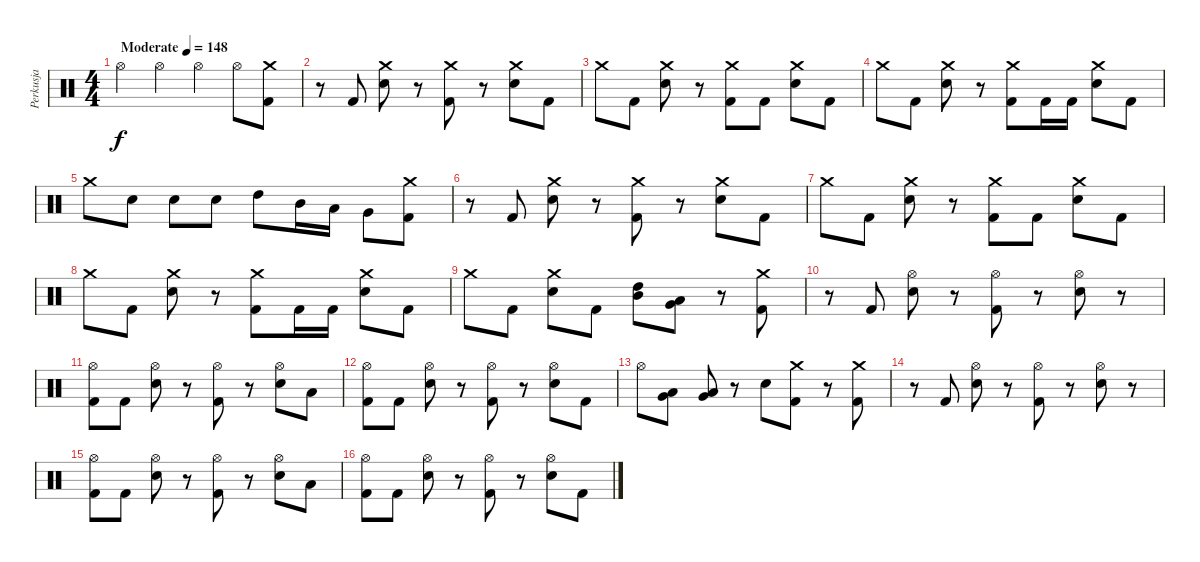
\track ("Perkusja" "Perkusja") {instrument percussion}
\staff {score}
\articulation defaults
\ts (4 4)
\tempo (148 "Moderate")
\clef neutral
\ks c "Hi-Hat (open)".4{dy f} "Hi-Hat (open)".4 "Hi-Hat (open)".4 "Hi-Hat (open)".8
("Crash medium (hit)" "Kick (hit) 2").8 |
r.8 "Kick (hit) 2".8 ("Crash medium (hit)" "Electric Snare (hit)").8 r.8 ("Crash medium (hit)" "Kick (hit) 2").8 r.8 ("Crash medium (hit)" "Electric Snare (hit)").8 "Kick (hit) 2".8 |
"Crash medium (hit)".8 "Kick (hit) 2".8 ("Crash medium (hit)" "Electric Snare (hit)").8 r.8 ("Crash medium (hit)" "Kick (hit) 2").8 "Kick (hit) 2".8 ("Crash medium (hit)" "Electric Snare (hit)").8 "Kick (hit) 2".8 |
"Crash medium (hit)".8 "Kick (hit) 2".8 ("Crash medium (hit)" "Electric Snare (hit)").8 r.8 ("Crash medium (hit)" "Kick (hit) 2").8 "Kick (hit) 2".16 "Kick (hit) 2".16 ("Crash medium (hit)" "Electric Snare (hit)").8 "Kick (hit) 2".8 |
"Crash medium (hit)".8 "Electric Snare (hit)".8 "Electric Snare (hit)".8 "Electric Snare (hit)".8 "High Tom (hit)".8 "Mid Tom (hit)".16 "Low Tom (hit)".16 "Very Low Tom (hit)".8 ("Crash medium (hit)" "Kick (hit) 2").8 |
r.8 "Kick (hit) 2".8 ("Crash medium (hit)" "Electric Snare (hit)").8 r.8 ("Crash medium (hit)" "Kick (hit) 2").8 r.8 ("Crash medium (hit)" "Electric Snare (hit)").8 "Kick (hit) 2".8 |
"Crash medium (hit)".8 "Kick (hit) 2".8 ("Crash medium (hit)" "Electric Snare (hit)").8 r.8 ("Crash medium (hit)" "Kick (hit) 2").8 "Kick (hit) 2".8 ("Crash medium (hit)" "Electric Snare (hit)").8 "Kick (hit) 2".8 |
"Crash medium (hit)".8 "Kick (hit) 2".8 ("Crash medium (hit)" "Electric Snare (hit)").8 r.8 ("Crash medium (hit)" "Kick (hit) 2").8 "Kick (hit) 2".16 "Kick (hit) 2".16 ("Crash medium (hit)" "Electric Snare (hit)").8 "Kick (hit) 2".8 |
"Crash medium (hit)".8 "Kick (hit) 2".8 ("Crash medium (hit)" "Electric Snare (hit)").8 "Kick (hit) 2".8 ("High Tom (hit)" "Mid Tom (hit)").8 ("Low Tom (hit)" "Very Low Tom (hit)").8 r.8 ("Crash medium (hit)" "Kick (hit) 2").8 |
r.8 "Kick (hit) 2".8 ("Hi-Hat (open)" "Electric Snare (hit)").8 r.8 ("Hi-Hat (open)" "Kick (hit) 2").8 r.8 ("Hi-Hat (open)" "Electric Snare (hit)").8 r.8 |
("Hi-Hat (open)" "Kick (hit) 2").8 "Kick (hit) 2".8 ("Hi-Hat (open)" "Electric Snare (hit)").8 r.8 ("Hi-Hat (open)" "Kick (hit) 2").8 r.8 ("Hi-Hat (open)" "Electric Snare (hit)").8 "Low Tom (hit)".8 |
("Hi-Hat (open)" "Kick (hit) 2").8 "Kick (hit) 2".8 ("Hi-Hat (open)" "Electric Snare (hit)").8 r.8 ("Hi-Hat (open)" "Kick (hit) 2").8 r.8 ("Hi-Hat (open)" "Electric Snare (hit)").8 "Kick (hit) 2".8 |
"Hi-Hat (open)".8 ("Very Low Tom (hit)" "Low Floor Tom (hit)").8 ("Very Low Tom (hit)" "Low Floor Tom (hit)").8 r.8 "Electric Snare (hit)".8 ("Crash medium (hit)" "Kick (hit) 2").8 r.8 ("Crash medium (hit)" "Kick (hit) 2").8 |
r.8 "Kick (hit) 2".8 ("Hi-Hat (open)" "Electric Snare (hit)").8 r.8 ("Hi-Hat (open)" "Kick (hit) 2").8 r.8 ("Hi-Hat (open)" "Electric Snare (hit)").8 r.8 |
("Hi-Hat (open)" "Kick (hit) 2").8 "Kick (hit) 2".8 ("Hi-Hat (open)" "Electric Snare (hit)").8 r.8 ("Hi-Hat (open)" "Kick (hit) 2").8 r.8 ("Hi-Hat (open)" "Electric Snare (hit)").8 "Low Tom (hit)".8 |
("Hi-Hat (open)" "Kick (hit) 2").8 "Kick (hit) 2".8 ("Hi-Hat (open)" "Electric Snare (hit)").8 r.8 ("Hi-Hat (open)" "Kick (hit) 2").8 r.8 ("Hi-Hat (open)" "Electric Snare (hit)").8 "Kick (hit) 2".8
